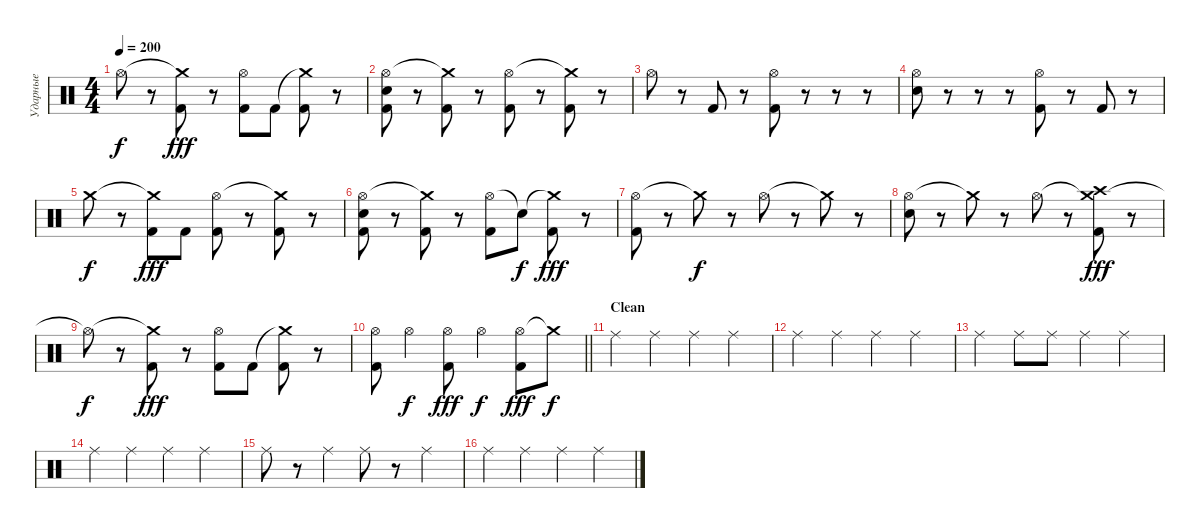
\track ("Ударные" "Ударные") {instrument percussion}
\staff {score}
\articulation defaults
\ts (4 4)
\tempo 200
\clef neutral
\ks c "Hi-Hat (open)"{t}.8{dy f}
r.8 ("Crash medium (hit)"{t} "Kick (hit) 2").8{dy fff} r.8 ("Hi-Hat (open)" "Kick (hit) 2").8 "Kick (hit) 2".8 ("Crash medium (hit)"{t} "Kick (hit) 2").8 r.8 |
("Hi-Hat (open)" "Electric Snare (hit)" "Kick (hit) 2").8 r.8 ("Crash medium (hit)"{t} "Kick (hit) 2").8 r.8 ("Hi-Hat (open)" "Kick (hit) 2").8 r.8 ("Crash medium (hit)"{t} "Kick (hit) 2").8 r.8 |
"Hi-Hat (open)".8 r.8 "Kick (hit) 2".8 r.8 ("Hi-Hat (open)" "Kick (hit) 2").8 r.8 r.8 r.8 |
("Hi-Hat (open)" "Electric Snare (hit)").8 r.8 r.8 r.8 ("Hi-Hat (open)" "Kick (hit) 2").8 r.8 "Kick (hit) 2".8 r.8 |
"Crash medium (hit)".8{dy f} r.8 ("Crash medium (hit)"{t} "Kick (hit) 2").8{dy fff} "Kick (hit) 2".8 ("Hi-Hat (open)" "Kick (hit) 2").8 r.8 ("Crash medium (hit)"{t} "Kick (hit) 2").8 r.8 |
("Hi-Hat (open)" "Electric Snare (hit)" "Kick (hit) 2").8 r.8 ("Crash medium (hit)"{t} "Kick (hit) 2").8 r.8 ("Hi-Hat (open)" "Kick (hit) 2").8 "Snare (hit)"{t}.8{dy f} ("Crash medium (hit)"{t} "Kick (hit) 2").8{dy fff} r.8 |
("Hi-Hat (open)" "Kick (hit) 2").8 r.8 "Crash medium (hit)"{t}.8{dy f} r.8 "Hi-Hat (open)".8 r.8 "Crash medium (hit)"{t}.8 r.8 |
("Hi-Hat (open)" "Electric Snare (hit)").8 r.8 "Crash medium (hit)"{t}.8 r.8 "Hi-Hat (open)".8 r.8 ("Crash medium (hit)"{t} "Crash high (hit)" "Kick (hit) 2").8{dy fff} r.8 |
"Hi-Hat (open)"{t}.8{dy f} r.8 ("Crash medium (hit)"{t} "Kick (hit) 2").8{dy fff} r.8 ("Hi-Hat (open)" "Kick (hit) 2").8 "Kick (hit) 2".8 ("Crash medium (hit)"{t} "Kick (hit) 2").8 r.8 |
\barLineRight lightlight
("Hi-Hat (open)" "Kick (hit) 2").8 "Hi-Hat (open)".4{dy f} ("Hi-Hat (open)" "Kick (hit) 2").8{dy fff} "Hi-Hat (open)".4{dy f} ("Hi-Hat (open)" "Kick (hit) 2").8{dy fff} "Crash medium (hit)"{t}.8{dy f} |
\section ("" "Clean")
"Ride (middle)".4{volume 11} "Ride (middle)".4 "Ride (middle)".4 "Ride (middle)".4 |
"Ride (middle)".4 "Ride (middle)".4 "Ride (middle)".4 "Ride (middle)".4 |
"Ride (middle)".4 "Ride (middle)".8 "Ride (middle)".8 "Ride (middle)".4 "Ride (middle)".4 |
"Ride (middle)".4 "Ride (middle)".4 "Ride (middle)".4 "Ride (middle)".4 |
"Ride (middle)".8 r.8 "Ride (middle)".4 "Ride (middle)".8 r.8 "Ride (middle)".4 |
"Ride (middle)".4{volume 11} "Ride (middle)".4 "Ride (middle)".4 "Ride (middle)".4
